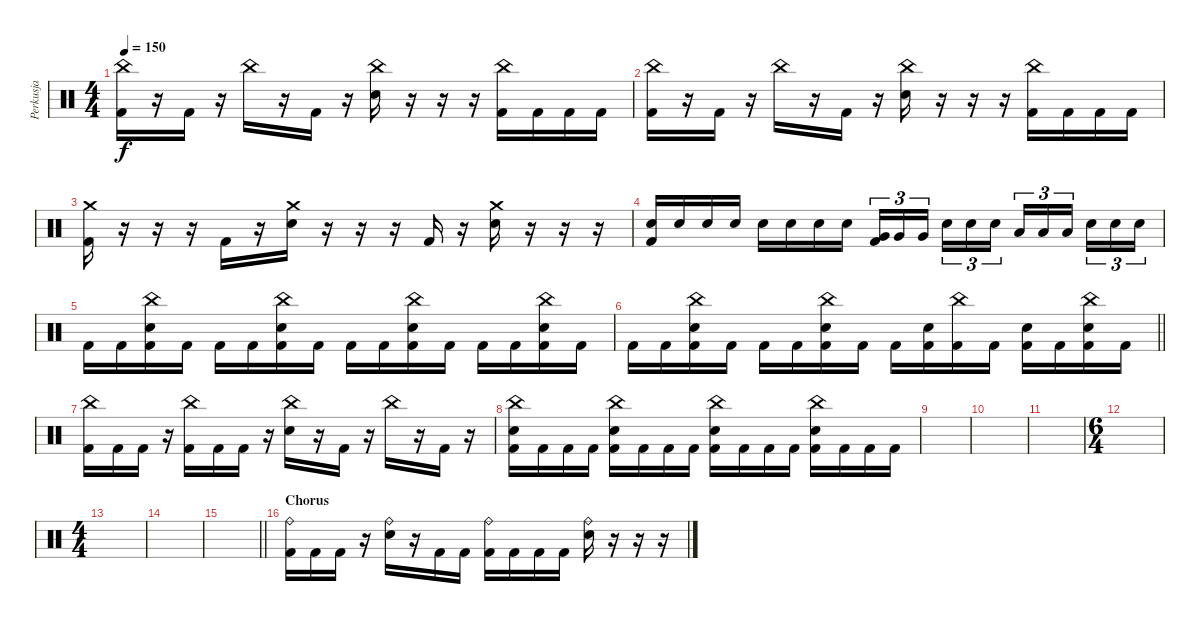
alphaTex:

\track ("Perkusja" "Perkusja") {instrument percussion}
\staff {score}
\articulation defaults
\ts (4 4)
\tempo 150
\clef neutral
\ks c
("China (hit)" "Kick (hit) 2").16{dy f} r.16 "Kick (hit) 2".16 r.16 "China (hit)".16 r.16 "Kick (hit) 2".16 r.16 ("China (hit)" "Snare (hit) 2").16 r.16 r.16 r.16 ("China (hit)" "Kick (hit) 2").16 "Kick (hit) 2".16 "Kick (hit) 2".16 "Kick (hit) 2".16 |
("China (hit)" "Kick (hit) 2").16 r.16 "Kick (hit) 2".16 r.16 "China (hit)".16 r.16 "Kick (hit) 2".16 r.16 ("China (hit)" "Snare (hit) 2").16 r.16 r.16 r.16 ("China (hit)" "Kick (hit) 2").16 "Kick (hit) 2".16 "Kick (hit) 2".16 "Kick (hit) 2".16 |
("Crash medium (hit)" "Kick (hit) 2").16 r.16 r.16 r.16 "Kick (hit) 2".16 r.16 ("Crash medium (hit)" "Snare (hit) 2").16 r.16 r.16 r.16 "Kick (hit) 2".16 r.16 ("Crash medium (hit)" "Snare (hit) 2").16 r.16 r.16 r.16 |
("Snare (hit) 2" "Kick (hit) 2").16 "Snare (hit) 2".16 "Snare (hit) 2".16 "Snare (hit) 2".16 "Snare (hit) 2".16 "Snare (hit) 2".16 "Snare (hit) 2".16 "Snare (hit) 2".16 ("Very Low Tom (hit)" "Kick (hit) 2").16{tu (3 2)} "Very Low Tom (hit)".16{tu (3 2)} "Very Low Tom (hit)".16{tu (3 2) beam splitsecondary} "Snare (hit) 2".16{tu (3 2)} "Snare (hit) 2".16{tu (3 2)} "Snare (hit) 2".16{tu (3 2)} "Low Floor Tom (hit)".16{tu (3 2)} "Low Floor Tom (hit)".16{tu (3 2)} "Low Floor Tom (hit)".16{tu (3 2) beam splitsecondary} "Snare (hit) 2".16{tu (3 2)} "Snare (hit) 2".16{tu (3 2)} "Snare (hit) 2".16{tu (3 2)} |
"Kick (hit) 2".16 "Kick (hit) 2".16 ("China (hit)" "Snare (hit) 2" "Kick (hit) 2").16 "Kick (hit) 2".16 "Kick (hit) 2".16 "Kick (hit) 2".16 ("China (hit)" "Snare (hit) 2" "Kick (hit) 2").16 "Kick (hit) 2".16 "Kick (hit) 2".16 "Kick (hit) 2".16 ("China (hit)" "Snare (hit) 2" "Kick (hit) 2").16 "Kick (hit) 2".16 "Kick (hit) 2".16 "Kick (hit) 2".16 ("China (hit)" "Snare (hit) 2" "Kick (hit) 2").16 "Kick (hit) 2".16 |
\barLineRight lightlight "Kick (hit) 2".16 "Kick (hit) 2".16
("China (hit)" "Snare (hit) 2" "Kick (hit) 2").16 "Kick (hit) 2".16 "Kick (hit) 2".16 "Kick (hit) 2".16 ("China (hit)" "Snare (hit) 2" "Kick (hit) 2").16 "Kick (hit) 2".16 "Kick (hit) 2".16 ("Snare (hit) 2" "Kick (hit) 2").16 ("China (hit)" "Kick (hit) 2").16 "Kick (hit) 2".16 ("Snare (hit) 2" "Kick (hit) 2").16 "Kick (hit) 2".16 ("China (hit)" "Snare (hit) 2" "Kick (hit) 2").16 "Kick (hit) 2".16 |
("China (hit)" "Kick (hit) 2").16 "Kick (hit) 2".16 "Kick (hit) 2".16 r.16 ("China (hit)" "Kick (hit) 2").16 "Kick (hit) 2".16 "Kick (hit) 2".16 r.16 ("China (hit)" "Snare (hit) 2").16 r.16 "Kick (hit) 2".16 r.16 "China (hit)".16 r.16 "Kick (hit) 2".16 r.16 |
("China (hit)" "Snare (hit) 2" "Kick (hit) 2").16 "Kick (hit) 2".16 "Kick (hit) 2".16 "Kick (hit) 2".16 ("China (hit)" "Snare (hit) 2" "Kick (hit) 2").16 "Kick (hit) 2".16 "Kick (hit) 2".16 "Kick (hit) 2".16 ("China (hit)" "Snare (hit) 2" "Kick (hit) 2").16 "Kick (hit) 2".16 "Kick (hit) 2".16 "Kick (hit) 2".16 ("China (hit)" "Snare (hit) 2" "Kick (hit) 2").16 "Kick (hit) 2".16 "Kick (hit) 2".16 "Kick (hit) 2".16 |
|
|
|
\ts (6 4)
|
\ts (4 4)
|
|
\barLineRight lightlight
|
\section ("" "Chorus")
("Ride (bell)" "Kick (hit) 2").16 "Kick (hit) 2".16 "Kick (hit) 2".16 r.16 ("Ride (bell)" "Snare (hit) 2").16 r.16 "Kick (hit) 2".16 "Kick (hit) 2".16 ("Ride (bell)" "Kick (hit) 2").16 "Kick (hit) 2".16 "Kick (hit) 2".16 "Kick (hit) 2".16 ("Ride (bell)" "Snare (hit) 2").16 r.16 r.16 r.16
